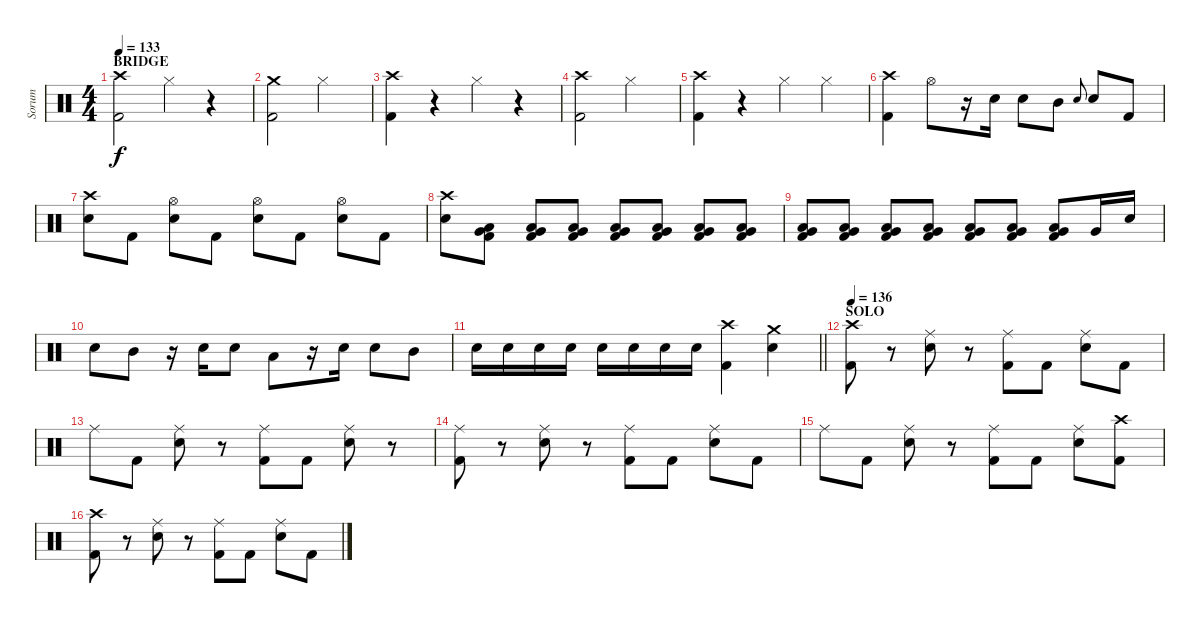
\track ("Sorum" "Sorum") {instrument percussion}
\staff {score}
\articulation defaults
\ts (4 4)
\section ("" "BRIDGE")
\tempo 133
\clef neutral
\ks c
("Crash high (hit)" "Kick (hit) 2").2{dy f} "Hi-Hat (closed)".4 r.4 |
("Crash medium (hit)" "Kick (hit) 2").2 "Hi-Hat (closed)".2 |
("Crash high (hit)" "Kick (hit) 2").4 r.4 "Hi-Hat (closed)".4 r.4 |
("Crash high (hit)" "Kick (hit) 2").2 "Hi-Hat (closed)".2 |
("Crash high (hit)" "Kick (hit) 2").4 r.4 "Hi-Hat (closed)".4 "Hi-Hat (closed)".4 |
("Crash high (hit)" "Kick (hit) 2").4 "Hi-Hat (open)".8 r.16 "Electric Snare (hit)".16 "Electric Snare (hit)".8 "Mid Tom (hit)".8 "Electric Snare (hit)".8{gr onbeat} "Electric Snare (hit)".8 "Kick (hit) 2".8 |
("Crash high (hit)" "Electric Snare (hit)").8 "Kick (hit) 2".8 ("Electric Snare (hit)" "Hi-Hat (open)").8 "Kick (hit) 2".8 ("Electric Snare (hit)" "Hi-Hat (open)").8 "Kick (hit) 2".8 ("Electric Snare (hit)" "Hi-Hat (open)").8 "Kick (hit) 2".8 |
("Crash high (hit)" "Electric Snare (hit)").8 ("Low Tom (hit)" "Kick (hit) 2" "Very Low Tom (hit)").8 ("Low Tom (hit)" "Kick (hit) 2" "Very Low Tom (hit)").8 ("Low Tom (hit)" "Kick (hit) 2" "Very Low Tom (hit)").8 ("Low Tom (hit)" "Kick (hit) 2" "Very Low Tom (hit)").8 ("Low Tom (hit)" "Kick (hit) 2" "Very Low Tom (hit)").8 ("Low Tom (hit)" "Kick (hit) 2" "Very Low Tom (hit)").8 ("Low Tom (hit)" "Kick (hit) 2" "Very Low Tom (hit)").8 |
("Low Tom (hit)" "Kick (hit) 2" "Very Low Tom (hit)").8 ("Low Tom (hit)" "Kick (hit) 2" "Very Low Tom (hit)").8 ("Low Tom (hit)" "Kick (hit) 2" "Very Low Tom (hit)").8 ("Low Tom (hit)" "Kick (hit) 2" "Very Low Tom (hit)").8 ("Low Tom (hit)" "Kick (hit) 2" "Very Low Tom (hit)").8 ("Low Tom (hit)" "Kick (hit) 2" "Very Low Tom (hit)").8 ("Low Tom (hit)" "Kick (hit) 2" "Very Low Tom (hit)").8 "Very Low Tom (hit)".16 "Electric Snare (hit)".16 |
"Electric Snare (hit)".8 "Mid Tom (hit)".8 r.16 "Electric Snare (hit)".16 "Electric Snare (hit)".8 "Low Tom (hit)".8 r.16 "Electric Snare (hit)".16 "Electric Snare (hit)".8 "Mid Tom (hit)".8 |
\barLineRight lightlight "Electric Snare (hit)".16 "Electric Snare (hit)".16 "Electric Snare (hit)".16 "Electric Snare (hit)".16 "Electric Snare (hit)".16 "Electric Snare (hit)".16 "Electric Snare (hit)".16 "Electric Snare (hit)".16
("Crash high (hit)" "Kick (hit) 2").4 ("Electric Snare (hit)" "Crash medium (hit)").4 |
\section ("" "SOLO")
\tempo 136
("Crash high (hit)" "Kick (hit) 2").8 r.8 ("Electric Snare (hit)" "Ride (middle)").8 r.8 ("Kick (hit) 2" "Ride (middle)").8 "Kick (hit) 2".8 ("Electric Snare (hit)" "Ride (middle)").8 "Kick (hit) 2".8 |
"Ride (middle)".8 "Kick (hit) 2".8 ("Electric Snare (hit)" "Ride (middle)").8 r.8 ("Kick (hit) 2" "Ride (middle)").8 "Kick (hit) 2".8 ("Electric Snare (hit)" "Ride (middle)").8 r.8 |
("Kick (hit) 2" "Ride (middle)").8 r.8 ("Electric Snare (hit)" "Ride (middle)").8 r.8 ("Kick (hit) 2" "Ride (middle)").8 "Kick (hit) 2".8 ("Electric Snare (hit)" "Ride (middle)").8 "Kick (hit) 2".8 |
"Ride (middle)".8 "Kick (hit) 2".8 ("Electric Snare (hit)" "Ride (middle)").8 r.8 ("Kick (hit) 2" "Ride (middle)").8 "Kick (hit) 2".8 ("Electric Snare (hit)" "Ride (middle)").8 ("Crash high (hit)" "Kick (hit) 2").8 |
("Crash high (hit)" "Kick (hit) 2").8 r.8 ("Electric Snare (hit)" "Ride (middle)").8 r.8 ("Kick (hit) 2" "Ride (middle)").8 "Kick (hit) 2".8 ("Electric Snare (hit)" "Ride (middle)").8 "Kick (hit) 2".8
